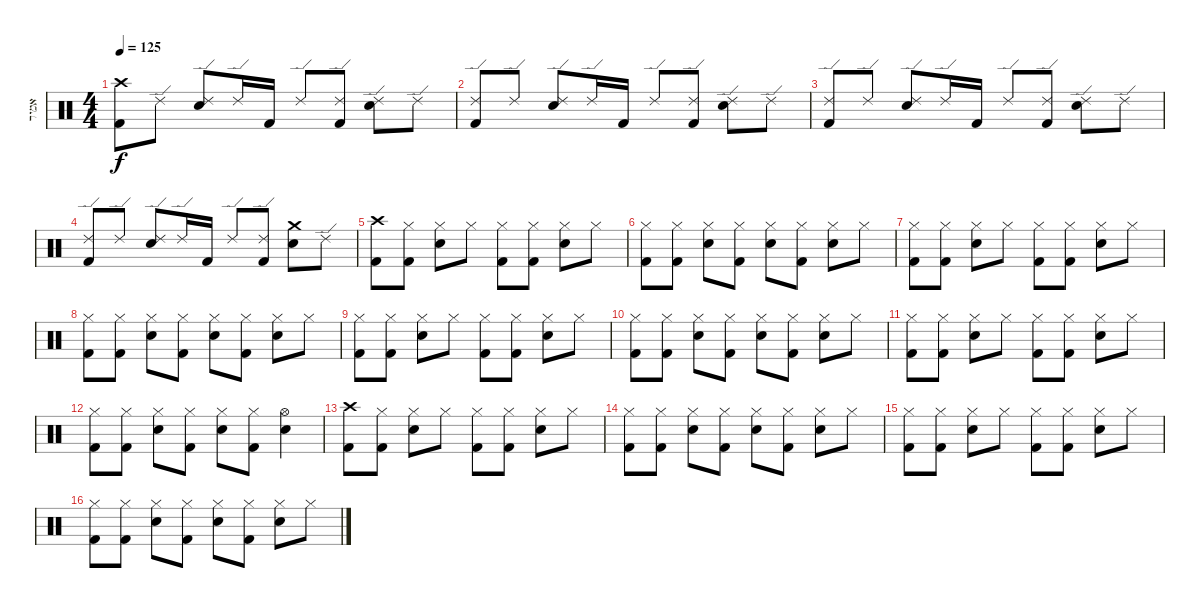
\track ("אמיר" "אמיר") {instrument percussion}
\staff {score}
\articulation defaults
\ts (4 4)
\tempo 125
\clef neutral
\ks c
("Crash high (hit)" "Kick (hit) 2").8{dy f} "Ride (edge) 2".8 ("Ride (edge) 2" "Snare (hit) 2").8 "Ride (edge) 2".16 "Kick (hit) 2".16 "Ride (edge) 2".8 ("Ride (edge) 2" "Kick (hit) 2").8 ("Ride (edge) 2" "Snare (hit) 2").8 "Ride (edge) 2".8 |
("Ride (edge) 2" "Kick (hit) 2").8 "Ride (edge) 2".8 ("Ride (edge) 2" "Snare (hit) 2").8 "Ride (edge) 2".16 "Kick (hit) 2".16 "Ride (edge) 2".8 ("Ride (edge) 2" "Kick (hit) 2").8 ("Ride (edge) 2" "Snare (hit) 2").8 "Ride (edge) 2".8 |
("Ride (edge) 2" "Kick (hit) 2").8 "Ride (edge) 2".8 ("Ride (edge) 2" "Snare (hit) 2").8 "Ride (edge) 2".16 "Kick (hit) 2".16 "Ride (edge) 2".8 ("Ride (edge) 2" "Kick (hit) 2").8 ("Ride (edge) 2" "Snare (hit) 2").8 "Ride (edge) 2".8 |
("Ride (edge) 2" "Kick (hit) 2").8 "Ride (edge) 2".8 ("Ride (edge) 2" "Snare (hit) 2").8 "Ride (edge) 2".16 "Kick (hit) 2".16 "Ride (edge) 2".8 ("Ride (edge) 2" "Kick (hit) 2").8 ("Crash medium (hit)" "Snare (hit) 2").8 "Ride (edge) 2".8 |
("Crash high (hit)" "Kick (hit) 2").8 ("Hi-Hat (closed)" "Kick (hit) 2").8 ("Hi-Hat (closed)" "Snare (hit) 2").8 "Hi-Hat (closed)".8 ("Hi-Hat (closed)" "Kick (hit) 2").8 ("Hi-Hat (closed)" "Kick (hit) 2").8 ("Hi-Hat (closed)" "Snare (hit) 2").8 "Hi-Hat (closed)".8 |
("Hi-Hat (closed)" "Kick (hit) 2").8 ("Hi-Hat (closed)" "Kick (hit) 2").8 ("Hi-Hat (closed)" "Snare (hit) 2").8 ("Hi-Hat (closed)" "Kick (hit) 2").8 ("Hi-Hat (closed)" "Snare (hit) 2").8 ("Hi-Hat (closed)" "Kick (hit) 2").8 ("Hi-Hat (closed)" "Snare (hit) 2").8 "Hi-Hat (closed)".8 |
("Hi-Hat (closed)" "Kick (hit) 2").8 ("Hi-Hat (closed)" "Kick (hit) 2").8 ("Hi-Hat (closed)" "Snare (hit) 2").8 "Hi-Hat (closed)".8 ("Hi-Hat (closed)" "Kick (hit) 2").8 ("Hi-Hat (closed)" "Kick (hit) 2").8 ("Hi-Hat (closed)" "Snare (hit) 2").8 "Hi-Hat (closed)".8 |
("Hi-Hat (closed)" "Kick (hit) 2").8 ("Hi-Hat (closed)" "Kick (hit) 2").8 ("Hi-Hat (closed)" "Snare (hit) 2").8 ("Hi-Hat (closed)" "Kick (hit) 2").8 ("Hi-Hat (closed)" "Snare (hit) 2").8 ("Hi-Hat (closed)" "Kick (hit) 2").8 ("Hi-Hat (closed)" "Snare (hit) 2").8 "Hi-Hat (closed)".8 |
("Hi-Hat (closed)" "Kick (hit) 2").8 ("Hi-Hat (closed)" "Kick (hit) 2").8 ("Hi-Hat (closed)" "Snare (hit) 2").8 "Hi-Hat (closed)".8 ("Hi-Hat (closed)" "Kick (hit) 2").8 ("Hi-Hat (closed)" "Kick (hit) 2").8 ("Hi-Hat (closed)" "Snare (hit) 2").8 "Hi-Hat (closed)".8 |
("Hi-Hat (closed)" "Kick (hit) 2").8 ("Hi-Hat (closed)" "Kick (hit) 2").8 ("Hi-Hat (closed)" "Snare (hit) 2").8 ("Hi-Hat (closed)" "Kick (hit) 2").8 ("Hi-Hat (closed)" "Snare (hit) 2").8 ("Hi-Hat (closed)" "Kick (hit) 2").8 ("Hi-Hat (closed)" "Snare (hit) 2").8 "Hi-Hat (closed)".8 |
("Hi-Hat (closed)" "Kick (hit) 2").8 ("Hi-Hat (closed)" "Kick (hit) 2").8 ("Hi-Hat (closed)" "Snare (hit) 2").8 "Hi-Hat (closed)".8 ("Hi-Hat (closed)" "Kick (hit) 2").8 ("Hi-Hat (closed)" "Kick (hit) 2").8 ("Hi-Hat (closed)" "Snare (hit) 2").8 "Hi-Hat (closed)".8 |
("Hi-Hat (closed)" "Kick (hit) 2").8 ("Hi-Hat (closed)" "Kick (hit) 2").8 ("Hi-Hat (closed)" "Snare (hit) 2").8 ("Hi-Hat (closed)" "Kick (hit) 2").8 ("Hi-Hat (closed)" "Snare (hit) 2").8 ("Hi-Hat (closed)" "Kick (hit) 2").8 ("Hi-Hat (open)" "Snare (hit) 2").4 |
("Crash high (hit)" "Kick (hit) 2").8 ("Hi-Hat (closed)" "Kick (hit) 2").8 ("Hi-Hat (closed)" "Snare (hit) 2").8 "Hi-Hat (closed)".8 ("Hi-Hat (closed)" "Kick (hit) 2").8 ("Hi-Hat (closed)" "Kick (hit) 2").8 ("Hi-Hat (closed)" "Snare (hit) 2").8 "Hi-Hat (closed)".8 |
("Hi-Hat (closed)" "Kick (hit) 2").8 ("Hi-Hat (closed)" "Kick (hit) 2").8 ("Hi-Hat (closed)" "Snare (hit) 2").8 ("Hi-Hat (closed)" "Kick (hit) 2").8 ("Hi-Hat (closed)" "Snare (hit) 2").8 ("Hi-Hat (closed)" "Kick (hit) 2").8 ("Hi-Hat (closed)" "Snare (hit) 2").8 "Hi-Hat (closed)".8 |
("Hi-Hat (closed)" "Kick (hit) 2").8 ("Hi-Hat (closed)" "Kick (hit) 2").8 ("Hi-Hat (closed)" "Snare (hit) 2").8 "Hi-Hat (closed)".8 ("Hi-Hat (closed)" "Kick (hit) 2").8 ("Hi-Hat (closed)" "Kick (hit) 2").8 ("Hi-Hat (closed)" "Snare (hit) 2").8 "Hi-Hat (closed)".8 |
("Hi-Hat (closed)" "Kick (hit) 2").8 ("Hi-Hat (closed)" "Kick (hit) 2").8 ("Hi-Hat (closed)" "Snare (hit) 2").8 ("Hi-Hat (closed)" "Kick (hit) 2").8 ("Hi-Hat (closed)" "Snare (hit) 2").8 ("Hi-Hat (closed)" "Kick (hit) 2").8 ("Hi-Hat (closed)" "Snare (hit) 2").8 "Hi-Hat (closed)".8
